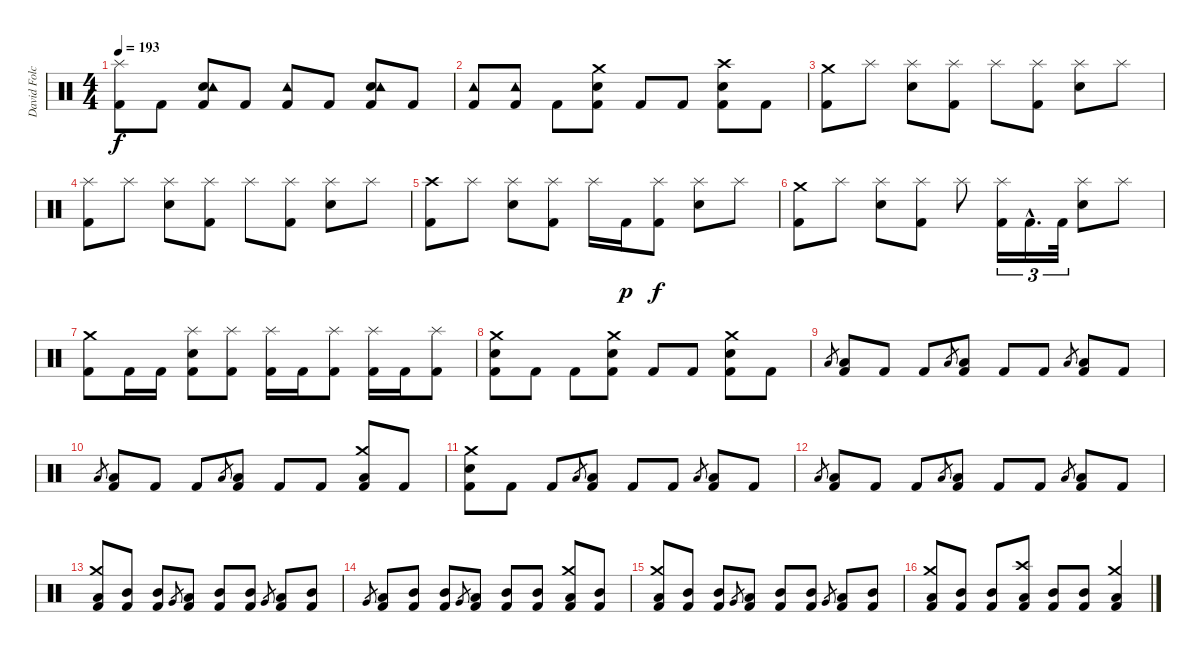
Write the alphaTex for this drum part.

\track ("David Folchitto" "David Folc") {instrument percussion}
\staff {score}
\articulation defaults
\ts (4 4)
\tempo 193
\clef neutral
\ks c
("Splash (hit)" "Kick (hit) 2").8{dy f} "Kick (hit) 2".8 ("Snare (hit) 2" "Tambourine (hit)" "Kick (hit) 2").8 "Kick (hit) 2".8 ("Tambourine (hit)" "Kick (hit) 2").8 "Kick (hit) 2".8 ("Snare (hit) 2" "Tambourine (hit)" "Kick (hit) 2").8 "Kick (hit) 2".8 |
("Tambourine (hit)" "Kick (hit) 2").8 ("Tambourine (hit)" "Kick (hit) 2").8 "Kick (hit) 2".8 ("Crash medium (hit)" "Snare (hit) 2" "Kick (hit) 2").8 "Kick (hit) 2".8 "Kick (hit) 2".8 ("Crash high (hit)" "Snare (hit) 2" "Kick (hit) 2").8 "Kick (hit) 2".8 |
("Crash medium (hit)" "Kick (hit) 2").8 "Splash (hit)".8 ("Snare (hit) 2" "Splash (hit)").8 ("Splash (hit)" "Kick (hit) 2").8 "Splash (hit)".8 ("Splash (hit)" "Kick (hit) 2").8 ("Snare (hit) 2" "Splash (hit)").8 "Splash (hit)".8 |
("Splash (hit)" "Kick (hit) 2").8 "Splash (hit)".8 ("Snare (hit) 2" "Splash (hit)").8 ("Splash (hit)" "Kick (hit) 2").8 "Splash (hit)".8 ("Splash (hit)" "Kick (hit) 2").8 ("Snare (hit) 2" "Splash (hit)").8 "Splash (hit)".8 |
("Crash high (hit)" "Kick (hit) 2").8 "Splash (hit)".8 ("Snare (hit) 2" "Splash (hit)").8 ("Splash (hit)" "Kick (hit) 2").8 "Splash (hit)".16 "Kick (hit) 2".16{dy p} ("Splash (hit)" "Kick (hit) 2").8{dy f} ("Snare (hit) 2" "Splash (hit)").8 "Splash (hit)".8 |
("Crash medium (hit)" "Kick (hit) 2").8 "Splash (hit)".8 ("Snare (hit) 2" "Splash (hit)").8 ("Splash (hit)" "Kick (hit) 2").8 "Splash (hit)".8 ("Splash (hit)" "Kick (hit) 2").16{tu (3 2)} "Kick (hit) 2"{hac}.16{d tu (3 2)} "Kick (hit) 2".32{tu (3 2)} ("Snare (hit) 2" "Splash (hit)").8 "Splash (hit)".8 |
("Crash medium (hit)" "Kick (hit) 2").8 "Kick (hit) 2".16 "Kick (hit) 2".16 ("Snare (hit) 2" "Splash (hit)" "Kick (hit) 2").8 ("Splash (hit)" "Kick (hit) 2").8 ("Splash (hit)" "Kick (hit) 2").16 "Kick (hit) 2".16 ("Splash (hit)" "Kick (hit) 2").8 ("Splash (hit)" "Kick (hit) 2").16 "Kick (hit) 2".16 ("Splash (hit)" "Kick (hit) 2").8 |
("Crash medium (hit)" "Snare (hit) 2" "Kick (hit) 2").8 "Kick (hit) 2".8 "Kick (hit) 2".8 ("Crash medium (hit)" "Snare (hit) 2" "Kick (hit) 2").8 "Kick (hit) 2".8 "Kick (hit) 2".8 ("Crash medium (hit)" "Snare (hit) 2" "Kick (hit) 2").8 "Kick (hit) 2".8 |
"Low Tom (hit)".8{gr} ("Low Tom (hit)" "Kick (hit) 2").8 "Kick (hit) 2".8 "Kick (hit) 2".8 "Low Tom (hit)".8{gr} ("Low Tom (hit)" "Kick (hit) 2").8 "Kick (hit) 2".8 "Kick (hit) 2".8 "Low Tom (hit)".8{gr} ("Low Tom (hit)" "Kick (hit) 2").8 "Kick (hit) 2".8 |
"Low Tom (hit)".8{gr} ("Low Tom (hit)" "Kick (hit) 2").8 "Kick (hit) 2".8 "Kick (hit) 2".8 "Low Tom (hit)".8{gr} ("Low Tom (hit)" "Kick (hit) 2").8 "Kick (hit) 2".8 "Kick (hit) 2".8 ("Crash medium (hit)" "Low Tom (hit)" "Kick (hit) 2").8 "Kick (hit) 2".8 |
("Crash medium (hit)" "Snare (hit) 2" "Kick (hit) 2").8 "Kick (hit) 2".8 "Kick (hit) 2".8 "Low Tom (hit)".8{gr} ("Low Tom (hit)" "Kick (hit) 2").8 "Kick (hit) 2".8 "Kick (hit) 2".8 "Low Tom (hit)".8{gr} ("Low Tom (hit)" "Kick (hit) 2").8 "Kick (hit) 2".8 |
"Low Tom (hit)".8{gr} ("Low Tom (hit)" "Kick (hit) 2").8 "Kick (hit) 2".8 "Kick (hit) 2".8 "Low Tom (hit)".8{gr} ("Low Tom (hit)" "Kick (hit) 2").8 "Kick (hit) 2".8 "Kick (hit) 2".8 "Low Tom (hit)".8{gr} ("Low Tom (hit)" "Kick (hit) 2").8 "Kick (hit) 2".8 |
("Crash medium (hit)" "Low Tom (hit)" "Kick (hit) 2").8 ("Mid Tom (hit)" "Kick (hit) 2").8 ("Mid Tom (hit)" "Kick (hit) 2").8 "Very Low Tom (hit)".8{gr} ("Low Tom (hit)" "Kick (hit) 2").8 ("Mid Tom (hit)" "Kick (hit) 2").8 ("Mid Tom (hit)" "Kick (hit) 2").8 "Very Low Tom (hit)".8{gr} ("Low Tom (hit)" "Kick (hit) 2").8 ("Mid Tom (hit)" "Kick (hit) 2").8 |
"Very Low Tom (hit)".8{gr} ("Low Tom (hit)" "Kick (hit) 2").8 ("Mid Tom (hit)" "Kick (hit) 2").8 ("Mid Tom (hit)" "Kick (hit) 2").8 "Very Low Tom (hit)".8{gr} ("Low Tom (hit)" "Kick (hit) 2").8 ("Mid Tom (hit)" "Kick (hit) 2").8 ("Mid Tom (hit)" "Kick (hit) 2").8 ("Crash medium (hit)" "Low Tom (hit)" "Kick (hit) 2").8 ("Mid Tom (hit)" "Kick (hit) 2").8 |
("Crash medium (hit)" "Low Tom (hit)" "Kick (hit) 2").8 ("Mid Tom (hit)" "Kick (hit) 2").8 ("Mid Tom (hit)" "Kick (hit) 2").8 "Very Low Tom (hit)".8{gr} ("Low Tom (hit)" "Kick (hit) 2").8 ("Mid Tom (hit)" "Kick (hit) 2").8 ("Mid Tom (hit)" "Kick (hit) 2").8 "Very Low Tom (hit)".8{gr} ("Low Tom (hit)" "Kick (hit) 2").8 ("Mid Tom (hit)" "Kick (hit) 2").8 |
("Crash medium (hit)" "Low Tom (hit)" "Kick (hit) 2").8 ("Mid Tom (hit)" "Kick (hit) 2").8 ("Mid Tom (hit)" "Kick (hit) 2").8 ("Crash high (hit)" "Low Tom (hit)" "Kick (hit) 2").8 ("Mid Tom (hit)" "Kick (hit) 2").8 ("Mid Tom (hit)" "Kick (hit) 2").8 ("Crash medium (hit)" "Low Tom (hit)" "Kick (hit) 2").4
